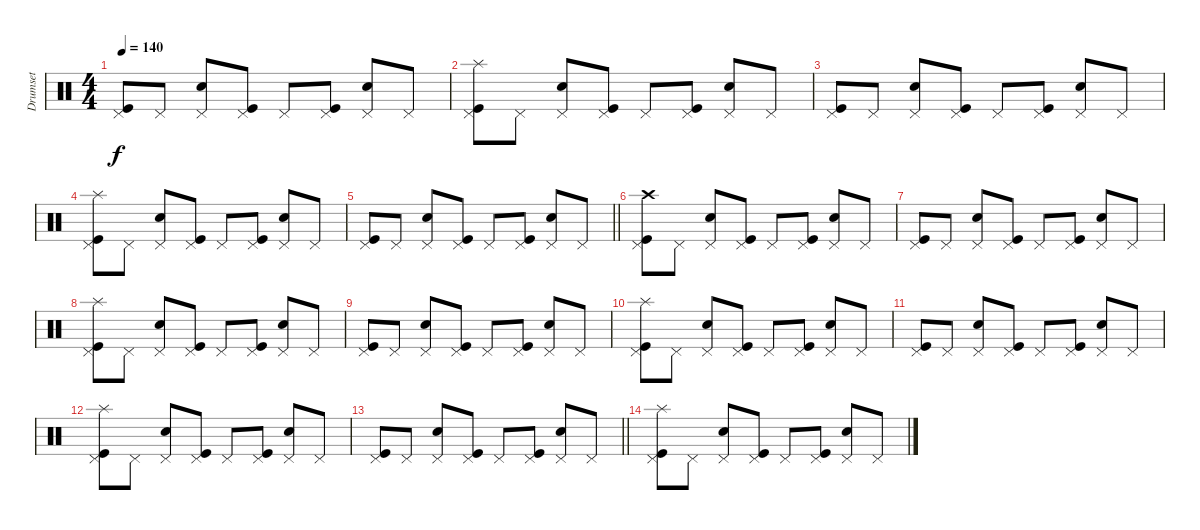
\track ("Drumset" "Drumset") {instrument percussion}
\staff {score}
\articulation defaults
\ts (4 4)
\tempo 140
\clef neutral
\ks c
("Pedal Hi-Hat (hit)" "Kick (hit)").8{dy f} "Pedal Hi-Hat (hit)".8 ("Pedal Hi-Hat (hit)" "Snare (hit) 2").8 ("Pedal Hi-Hat (hit)" "Kick (hit)").8 "Pedal Hi-Hat (hit)".8 ("Pedal Hi-Hat (hit)" "Kick (hit)").8 ("Pedal Hi-Hat (hit)" "Snare (hit) 2").8 "Pedal Hi-Hat (hit)".8 |
("Pedal Hi-Hat (hit)" "Kick (hit)" "Splash (hit)").8 "Pedal Hi-Hat (hit)".8 ("Pedal Hi-Hat (hit)" "Snare (hit) 2").8 ("Pedal Hi-Hat (hit)" "Kick (hit)").8 "Pedal Hi-Hat (hit)".8 ("Pedal Hi-Hat (hit)" "Kick (hit)").8 ("Pedal Hi-Hat (hit)" "Snare (hit) 2").8 "Pedal Hi-Hat (hit)".8 |
("Pedal Hi-Hat (hit)" "Kick (hit)").8 "Pedal Hi-Hat (hit)".8 ("Pedal Hi-Hat (hit)" "Snare (hit) 2").8 ("Pedal Hi-Hat (hit)" "Kick (hit)").8 "Pedal Hi-Hat (hit)".8 ("Pedal Hi-Hat (hit)" "Kick (hit)").8 ("Pedal Hi-Hat (hit)" "Snare (hit) 2").8 "Pedal Hi-Hat (hit)".8 |
("Pedal Hi-Hat (hit)" "Kick (hit)" "Splash (hit)").8 "Pedal Hi-Hat (hit)".8 ("Pedal Hi-Hat (hit)" "Snare (hit) 2").8 ("Pedal Hi-Hat (hit)" "Kick (hit)").8 "Pedal Hi-Hat (hit)".8 ("Pedal Hi-Hat (hit)" "Kick (hit)").8 ("Pedal Hi-Hat (hit)" "Snare (hit) 2").8 "Pedal Hi-Hat (hit)".8 |
\barLineRight lightlight
("Pedal Hi-Hat (hit)" "Kick (hit)").8 "Pedal Hi-Hat (hit)".8 ("Pedal Hi-Hat (hit)" "Snare (hit) 2").8 ("Pedal Hi-Hat (hit)" "Kick (hit)").8 "Pedal Hi-Hat (hit)".8 ("Pedal Hi-Hat (hit)" "Kick (hit)").8 ("Pedal Hi-Hat (hit)" "Snare (hit) 2").8 "Pedal Hi-Hat (hit)".8 |
("Pedal Hi-Hat (hit)" "Kick (hit)" "Crash high (hit)").8 "Pedal Hi-Hat (hit)".8 ("Pedal Hi-Hat (hit)" "Snare (hit) 2").8 ("Pedal Hi-Hat (hit)" "Kick (hit)").8 "Pedal Hi-Hat (hit)".8 ("Pedal Hi-Hat (hit)" "Kick (hit)").8 ("Pedal Hi-Hat (hit)" "Snare (hit) 2").8 "Pedal Hi-Hat (hit)".8 |
("Pedal Hi-Hat (hit)" "Kick (hit)").8 "Pedal Hi-Hat (hit)".8 ("Pedal Hi-Hat (hit)" "Snare (hit) 2").8 ("Pedal Hi-Hat (hit)" "Kick (hit)").8 "Pedal Hi-Hat (hit)".8 ("Pedal Hi-Hat (hit)" "Kick (hit)").8 ("Pedal Hi-Hat (hit)" "Snare (hit) 2").8 "Pedal Hi-Hat (hit)".8 |
("Pedal Hi-Hat (hit)" "Kick (hit)" "Splash (hit)").8 "Pedal Hi-Hat (hit)".8 ("Pedal Hi-Hat (hit)" "Snare (hit) 2").8 ("Pedal Hi-Hat (hit)" "Kick (hit)").8 "Pedal Hi-Hat (hit)".8 ("Pedal Hi-Hat (hit)" "Kick (hit)").8 ("Pedal Hi-Hat (hit)" "Snare (hit) 2").8 "Pedal Hi-Hat (hit)".8 |
("Pedal Hi-Hat (hit)" "Kick (hit)").8 "Pedal Hi-Hat (hit)".8 ("Pedal Hi-Hat (hit)" "Snare (hit) 2").8 ("Pedal Hi-Hat (hit)" "Kick (hit)").8 "Pedal Hi-Hat (hit)".8 ("Pedal Hi-Hat (hit)" "Kick (hit)").8 ("Pedal Hi-Hat (hit)" "Snare (hit) 2").8 "Pedal Hi-Hat (hit)".8 |
("Pedal Hi-Hat (hit)" "Kick (hit)" "Splash (hit)").8 "Pedal Hi-Hat (hit)".8 ("Pedal Hi-Hat (hit)" "Snare (hit) 2").8 ("Pedal Hi-Hat (hit)" "Kick (hit)").8 "Pedal Hi-Hat (hit)".8 ("Pedal Hi-Hat (hit)" "Kick (hit)").8 ("Pedal Hi-Hat (hit)" "Snare (hit) 2").8 "Pedal Hi-Hat (hit)".8 |
("Pedal Hi-Hat (hit)" "Kick (hit)").8 "Pedal Hi-Hat (hit)".8 ("Pedal Hi-Hat (hit)" "Snare (hit) 2").8 ("Pedal Hi-Hat (hit)" "Kick (hit)").8 "Pedal Hi-Hat (hit)".8 ("Pedal Hi-Hat (hit)" "Kick (hit)").8 ("Pedal Hi-Hat (hit)" "Snare (hit) 2").8 "Pedal Hi-Hat (hit)".8 |
("Pedal Hi-Hat (hit)" "Kick (hit)" "Splash (hit)").8 "Pedal Hi-Hat (hit)".8 ("Pedal Hi-Hat (hit)" "Snare (hit) 2").8 ("Pedal Hi-Hat (hit)" "Kick (hit)").8 "Pedal Hi-Hat (hit)".8 ("Pedal Hi-Hat (hit)" "Kick (hit)").8 ("Pedal Hi-Hat (hit)" "Snare (hit) 2").8 "Pedal Hi-Hat (hit)".8 |
\barLineRight lightlight
("Pedal Hi-Hat (hit)" "Kick (hit)").8 "Pedal Hi-Hat (hit)".8 ("Pedal Hi-Hat (hit)" "Snare (hit) 2").8 ("Pedal Hi-Hat (hit)" "Kick (hit)").8 "Pedal Hi-Hat (hit)".8 ("Pedal Hi-Hat (hit)" "Kick (hit)").8 ("Pedal Hi-Hat (hit)" "Snare (hit) 2").8 "Pedal Hi-Hat (hit)".8 |
("Pedal Hi-Hat (hit)" "Kick (hit)" "Splash (hit)").8 "Pedal Hi-Hat (hit)".8 ("Pedal Hi-Hat (hit)" "Snare (hit) 2").8 ("Pedal Hi-Hat (hit)" "Kick (hit)").8 "Pedal Hi-Hat (hit)".8 ("Pedal Hi-Hat (hit)" "Kick (hit)").8 ("Pedal Hi-Hat (hit)" "Snare (hit) 2").8 "Pedal Hi-Hat (hit)".8
